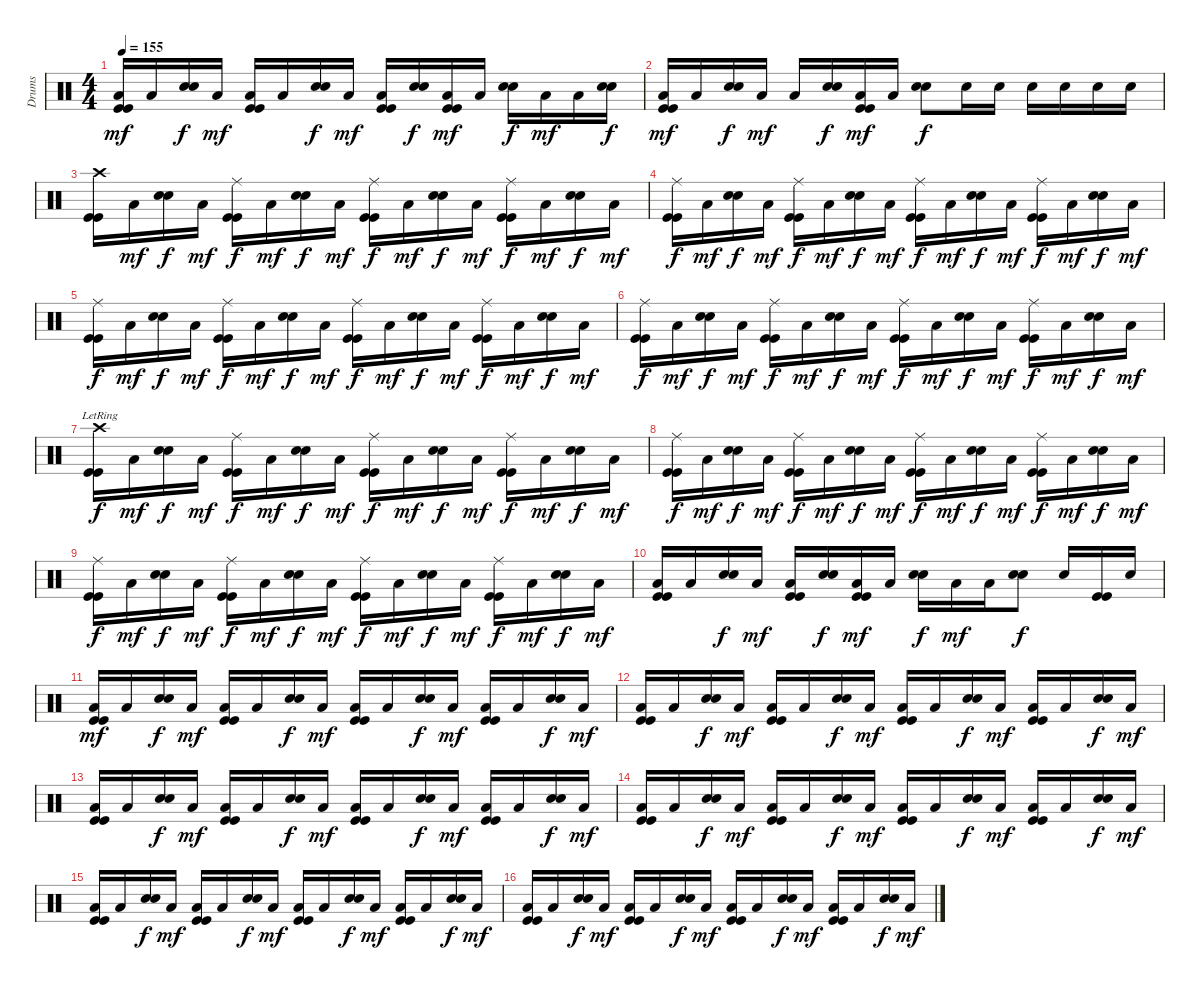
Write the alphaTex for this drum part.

\track ("Drums" "Drums") {instrument percussion}
\staff {score}
\articulation defaults
\ts (4 4)
\tempo 155
\clef neutral
\ks c
("Low Tom (hit)" "Kick (hit)" "Kick (hit)").16{dy mf} "Low Tom (hit)".16 ("Snare (hit) 2" "Snare (hit) 2").16{dy f} "Low Tom (hit)".16{dy mf} ("Low Tom (hit)" "Kick (hit)" "Kick (hit)").16 "Low Tom (hit)".16 ("Snare (hit) 2" "Snare (hit) 2").16{dy f} "Low Tom (hit)".16{dy mf} ("Low Tom (hit)" "Kick (hit)" "Kick (hit)").16 ("Snare (hit) 2" "Snare (hit) 2").16{dy f} ("Low Tom (hit)" "Kick (hit)" "Kick (hit)").16{dy mf} "Low Tom (hit)".16 ("Snare (hit) 2" "Snare (hit) 2").16{dy f} "Low Tom (hit)".16{dy mf} "Low Tom (hit)".16 ("Snare (hit) 2" "Snare (hit) 2").16{dy f} |
("Low Tom (hit)" "Kick (hit)" "Kick (hit)").16{dy mf} "Low Tom (hit)".16 ("Snare (hit) 2" "Snare (hit) 2").16{dy f} "Low Tom (hit)".16{dy mf} "Low Tom (hit)".16 ("Snare (hit) 2" "Snare (hit) 2").16{dy f} ("Low Tom (hit)" "Kick (hit)" "Kick (hit)").16{dy mf} "Low Tom (hit)".16 ("Snare (hit) 2" "Snare (hit) 2").8{dy f} "Snare (hit) 2".16 "Snare (hit) 2".16 "Snare (hit) 2".16 "Snare (hit) 2".16 "Snare (hit) 2".16 "Snare (hit) 2".16 |
("Crash high (hit)" "Kick (hit)" "Kick (hit)").16 "Low Tom (hit)".16{dy mf} ("Snare (hit) 2" "Snare (hit) 2").16{dy f} "Low Tom (hit)".16{dy mf} ("Ride (middle)" "Kick (hit)" "Kick (hit)").16{dy f} "Low Tom (hit)".16{dy mf} ("Snare (hit) 2" "Snare (hit) 2").16{dy f} "Low Tom (hit)".16{dy mf} ("Ride (middle)" "Kick (hit)" "Kick (hit)").16{dy f} "Low Tom (hit)".16{dy mf} ("Snare (hit) 2" "Snare (hit) 2").16{dy f} "Low Tom (hit)".16{dy mf} ("Ride (middle)" "Kick (hit)" "Kick (hit)").16{dy f} "Low Tom (hit)".16{dy mf} ("Snare (hit) 2" "Snare (hit) 2").16{dy f} "Low Tom (hit)".16{dy mf} |
("Ride (middle)" "Kick (hit)" "Kick (hit)").16{dy f} "Low Tom (hit)".16{dy mf} ("Snare (hit) 2" "Snare (hit) 2").16{dy f} "Low Tom (hit)".16{dy mf} ("Ride (middle)" "Kick (hit)" "Kick (hit)").16{dy f} "Low Tom (hit)".16{dy mf} ("Snare (hit) 2" "Snare (hit) 2").16{dy f} "Low Tom (hit)".16{dy mf} ("Ride (middle)" "Kick (hit)" "Kick (hit)").16{dy f} "Low Tom (hit)".16{dy mf} ("Snare (hit) 2" "Snare (hit) 2").16{dy f} "Low Tom (hit)".16{dy mf} ("Ride (middle)" "Kick (hit)" "Kick (hit)").16{dy f} "Low Tom (hit)".16{dy mf} ("Snare (hit) 2" "Snare (hit) 2").16{dy f} "Low Tom (hit)".16{dy mf} |
("Ride (middle)" "Kick (hit)" "Kick (hit)").16{dy f} "Low Tom (hit)".16{dy mf} ("Snare (hit) 2" "Snare (hit) 2").16{dy f} "Low Tom (hit)".16{dy mf} ("Ride (middle)" "Kick (hit)" "Kick (hit)").16{dy f} "Low Tom (hit)".16{dy mf} ("Snare (hit) 2" "Snare (hit) 2").16{dy f} "Low Tom (hit)".16{dy mf} ("Ride (middle)" "Kick (hit)" "Kick (hit)").16{dy f} "Low Tom (hit)".16{dy mf} ("Snare (hit) 2" "Snare (hit) 2").16{dy f} "Low Tom (hit)".16{dy mf} ("Ride (middle)" "Kick (hit)" "Kick (hit)").16{dy f} "Low Tom (hit)".16{dy mf} ("Snare (hit) 2" "Snare (hit) 2").16{dy f} "Low Tom (hit)".16{dy mf} |
("Ride (middle)" "Kick (hit)" "Kick (hit)").16{dy f} "Low Tom (hit)".16{dy mf} ("Snare (hit) 2" "Snare (hit) 2").16{dy f} "Low Tom (hit)".16{dy mf} ("Ride (middle)" "Kick (hit)" "Kick (hit)").16{dy f} "Low Tom (hit)".16{dy mf} ("Snare (hit) 2" "Snare (hit) 2").16{dy f} "Low Tom (hit)".16{dy mf} ("Ride (middle)" "Kick (hit)" "Kick (hit)").16{dy f} "Low Tom (hit)".16{dy mf} ("Snare (hit) 2" "Snare (hit) 2").16{dy f} "Low Tom (hit)".16{dy mf} ("Ride (middle)" "Kick (hit)" "Kick (hit)").16{dy f} "Low Tom (hit)".16{dy mf} ("Snare (hit) 2" "Snare (hit) 2").16{dy f} "Low Tom (hit)".16{dy mf} |
("Crash high (hit)"{lr} "Kick (hit)" "Kick (hit)").16{dy f} "Low Tom (hit)".16{dy mf} ("Snare (hit) 2" "Snare (hit) 2").16{dy f} "Low Tom (hit)".16{dy mf} ("Ride (middle)" "Kick (hit)" "Kick (hit)").16{dy f} "Low Tom (hit)".16{dy mf} ("Snare (hit) 2" "Snare (hit) 2").16{dy f} "Low Tom (hit)".16{dy mf} ("Ride (middle)" "Kick (hit)" "Kick (hit)").16{dy f} "Low Tom (hit)".16{dy mf} ("Snare (hit) 2" "Snare (hit) 2").16{dy f} "Low Tom (hit)".16{dy mf} ("Ride (middle)" "Kick (hit)" "Kick (hit)").16{dy f} "Low Tom (hit)".16{dy mf} ("Snare (hit) 2" "Snare (hit) 2").16{dy f} "Low Tom (hit)".16{dy mf} |
("Ride (middle)" "Kick (hit)" "Kick (hit)").16{dy f} "Low Tom (hit)".16{dy mf} ("Snare (hit) 2" "Snare (hit) 2").16{dy f} "Low Tom (hit)".16{dy mf} ("Ride (middle)" "Kick (hit)" "Kick (hit)").16{dy f} "Low Tom (hit)".16{dy mf} ("Snare (hit) 2" "Snare (hit) 2").16{dy f} "Low Tom (hit)".16{dy mf} ("Ride (middle)" "Kick (hit)" "Kick (hit)").16{dy f} "Low Tom (hit)".16{dy mf} ("Snare (hit) 2" "Snare (hit) 2").16{dy f} "Low Tom (hit)".16{dy mf} ("Ride (middle)" "Kick (hit)" "Kick (hit)").16{dy f} "Low Tom (hit)".16{dy mf} ("Snare (hit) 2" "Snare (hit) 2").16{dy f} "Low Tom (hit)".16{dy mf} |
("Ride (middle)" "Kick (hit)" "Kick (hit)").16{dy f} "Low Tom (hit)".16{dy mf} ("Snare (hit) 2" "Snare (hit) 2").16{dy f} "Low Tom (hit)".16{dy mf} ("Ride (middle)" "Kick (hit)" "Kick (hit)").16{dy f} "Low Tom (hit)".16{dy mf} ("Snare (hit) 2" "Snare (hit) 2").16{dy f} "Low Tom (hit)".16{dy mf} ("Ride (middle)" "Kick (hit)" "Kick (hit)").16{dy f} "Low Tom (hit)".16{dy mf} ("Snare (hit) 2" "Snare (hit) 2").16{dy f} "Low Tom (hit)".16{dy mf} ("Ride (middle)" "Kick (hit)" "Kick (hit)").16{dy f} "Low Tom (hit)".16{dy mf} ("Snare (hit) 2" "Snare (hit) 2").16{dy f} "Low Tom (hit)".16{dy mf} |
("Low Tom (hit)" "Kick (hit)" "Kick (hit)").16 "Low Tom (hit)".16 ("Snare (hit) 2" "Snare (hit) 2").16{dy f} "Low Tom (hit)".16{dy mf} ("Low Tom (hit)" "Kick (hit)" "Kick (hit)").16 ("Snare (hit) 2" "Snare (hit) 2").16{dy f} ("Low Tom (hit)" "Kick (hit)" "Kick (hit)").16{dy mf} "Low Tom (hit)".16 ("Snare (hit) 2" "Snare (hit) 2").16{dy f} "Low Tom (hit)".16{dy mf} "Low Tom (hit)".16 ("Snare (hit) 2" "Snare (hit) 2").8{dy f} "Snare (hit) 2".16 ("Kick (hit)" "Kick (hit)").16 "Snare (hit) 2".16 |
("Low Tom (hit)" "Kick (hit)" "Kick (hit)").16{dy mf} "Low Tom (hit)".16 ("Snare (hit) 2" "Snare (hit) 2").16{dy f} "Low Tom (hit)".16{dy mf} ("Low Tom (hit)" "Kick (hit)" "Kick (hit)").16 "Low Tom (hit)".16 ("Snare (hit) 2" "Snare (hit) 2").16{dy f} "Low Tom (hit)".16{dy mf} ("Low Tom (hit)" "Kick (hit)" "Kick (hit)").16 "Low Tom (hit)".16 ("Snare (hit) 2" "Snare (hit) 2").16{dy f} "Low Tom (hit)".16{dy mf} ("Low Tom (hit)" "Kick (hit)" "Kick (hit)").16 "Low Tom (hit)".16 ("Snare (hit) 2" "Snare (hit) 2").16{dy f} "Low Tom (hit)".16{dy mf} |
("Low Tom (hit)" "Kick (hit)" "Kick (hit)").16 "Low Tom (hit)".16 ("Snare (hit) 2" "Snare (hit) 2").16{dy f} "Low Tom (hit)".16{dy mf} ("Low Tom (hit)" "Kick (hit)" "Kick (hit)").16 "Low Tom (hit)".16 ("Snare (hit) 2" "Snare (hit) 2").16{dy f} "Low Tom (hit)".16{dy mf} ("Low Tom (hit)" "Kick (hit)" "Kick (hit)").16 "Low Tom (hit)".16 ("Snare (hit) 2" "Snare (hit) 2").16{dy f} "Low Tom (hit)".16{dy mf} ("Low Tom (hit)" "Kick (hit)" "Kick (hit)").16 "Low Tom (hit)".16 ("Snare (hit) 2" "Snare (hit) 2").16{dy f} "Low Tom (hit)".16{dy mf} |
("Low Tom (hit)" "Kick (hit)" "Kick (hit)").16 "Low Tom (hit)".16 ("Snare (hit) 2" "Snare (hit) 2").16{dy f} "Low Tom (hit)".16{dy mf} ("Low Tom (hit)" "Kick (hit)" "Kick (hit)").16 "Low Tom (hit)".16 ("Snare (hit) 2" "Snare (hit) 2").16{dy f} "Low Tom (hit)".16{dy mf} ("Low Tom (hit)" "Kick (hit)" "Kick (hit)").16 "Low Tom (hit)".16 ("Snare (hit) 2" "Snare (hit) 2").16{dy f} "Low Tom (hit)".16{dy mf} ("Low Tom (hit)" "Kick (hit)" "Kick (hit)").16 "Low Tom (hit)".16 ("Snare (hit) 2" "Snare (hit) 2").16{dy f} "Low Tom (hit)".16{dy mf} |
("Low Tom (hit)" "Kick (hit)" "Kick (hit)").16 "Low Tom (hit)".16 ("Snare (hit) 2" "Snare (hit) 2").16{dy f} "Low Tom (hit)".16{dy mf} ("Low Tom (hit)" "Kick (hit)" "Kick (hit)").16 "Low Tom (hit)".16 ("Snare (hit) 2" "Snare (hit) 2").16{dy f} "Low Tom (hit)".16{dy mf} ("Low Tom (hit)" "Kick (hit)" "Kick (hit)").16 "Low Tom (hit)".16 ("Snare (hit) 2" "Snare (hit) 2").16{dy f} "Low Tom (hit)".16{dy mf} ("Low Tom (hit)" "Kick (hit)" "Kick (hit)").16 "Low Tom (hit)".16 ("Snare (hit) 2" "Snare (hit) 2").16{dy f} "Low Tom (hit)".16{dy mf} |
("Low Tom (hit)" "Kick (hit)" "Kick (hit)").16 "Low Tom (hit)".16 ("Snare (hit) 2" "Snare (hit) 2").16{dy f} "Low Tom (hit)".16{dy mf} ("Low Tom (hit)" "Kick (hit)" "Kick (hit)").16 "Low Tom (hit)".16 ("Snare (hit) 2" "Snare (hit) 2").16{dy f} "Low Tom (hit)".16{dy mf} ("Low Tom (hit)" "Kick (hit)" "Kick (hit)").16 "Low Tom (hit)".16 ("Snare (hit) 2" "Snare (hit) 2").16{dy f} "Low Tom (hit)".16{dy mf} ("Low Tom (hit)" "Kick (hit)" "Kick (hit)").16 "Low Tom (hit)".16 ("Snare (hit) 2" "Snare (hit) 2").16{dy f} "Low Tom (hit)".16{dy mf} |
("Low Tom (hit)" "Kick (hit)" "Kick (hit)").16 "Low Tom (hit)".16 ("Snare (hit) 2" "Snare (hit) 2").16{dy f} "Low Tom (hit)".16{dy mf} ("Low Tom (hit)" "Kick (hit)" "Kick (hit)").16 "Low Tom (hit)".16 ("Snare (hit) 2" "Snare (hit) 2").16{dy f} "Low Tom (hit)".16{dy mf} ("Low Tom (hit)" "Kick (hit)" "Kick (hit)").16 "Low Tom (hit)".16 ("Snare (hit) 2" "Snare (hit) 2").16{dy f} "Low Tom (hit)".16{dy mf} ("Low Tom (hit)" "Kick (hit)" "Kick (hit)").16 "Low Tom (hit)".16 ("Snare (hit) 2" "Snare (hit) 2").16{dy f} "Low Tom (hit)".16{dy mf}
